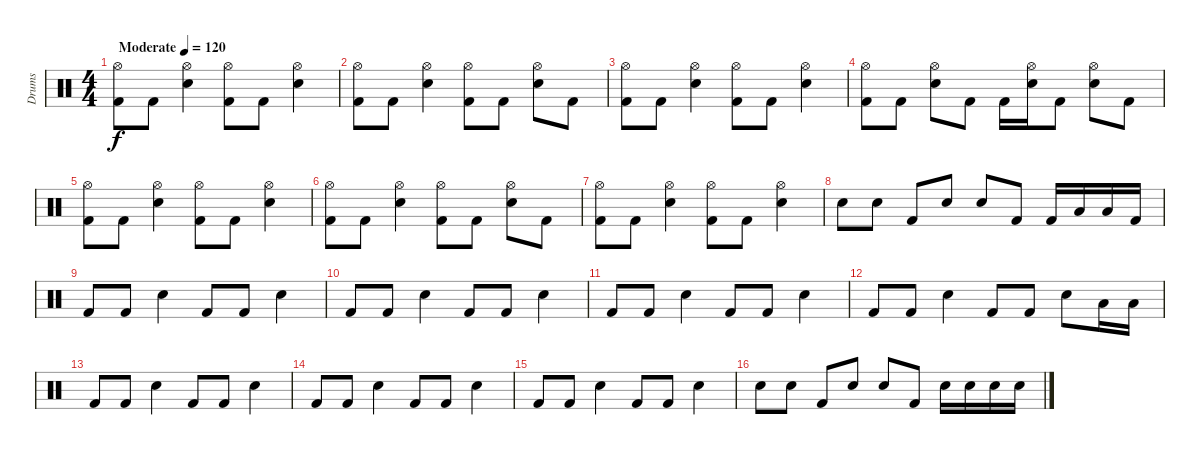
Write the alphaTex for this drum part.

\track ("Drums" "Drums") {instrument percussion}
\staff {score}
\articulation defaults
\ts (4 4)
\tempo (120 "Moderate")
\clef neutral
\ks c
("Hi-Hat (open)" "Kick (hit) 2").8{dy f} "Kick (hit) 2".8 ("Hi-Hat (open)" "Snare (hit) 2").4 ("Hi-Hat (open)" "Kick (hit) 2").8 "Kick (hit) 2".8 ("Hi-Hat (open)" "Snare (hit) 2").4 |
("Hi-Hat (open)" "Kick (hit) 2").8 "Kick (hit) 2".8 ("Hi-Hat (open)" "Snare (hit) 2").4 ("Hi-Hat (open)" "Kick (hit) 2").8 "Kick (hit) 2".8 ("Hi-Hat (open)" "Snare (hit) 2").8 "Kick (hit) 2".8 |
("Hi-Hat (open)" "Kick (hit) 2").8 "Kick (hit) 2".8 ("Hi-Hat (open)" "Snare (hit) 2").4 ("Hi-Hat (open)" "Kick (hit) 2").8 "Kick (hit) 2".8 ("Hi-Hat (open)" "Snare (hit) 2").4 |
("Hi-Hat (open)" "Kick (hit) 2").8 "Kick (hit) 2".8 ("Hi-Hat (open)" "Snare (hit) 2").8 "Kick (hit) 2".8 "Kick (hit) 2".16 ("Hi-Hat (open)" "Snare (hit) 2").16 "Kick (hit) 2".8 ("Hi-Hat (open)" "Snare (hit) 2").8 "Kick (hit) 2".8 |
("Hi-Hat (open)" "Kick (hit) 2").8 "Kick (hit) 2".8 ("Hi-Hat (open)" "Snare (hit) 2").4 ("Hi-Hat (open)" "Kick (hit) 2").8 "Kick (hit) 2".8 ("Hi-Hat (open)" "Snare (hit) 2").4 |
("Hi-Hat (open)" "Kick (hit) 2").8 "Kick (hit) 2".8 ("Hi-Hat (open)" "Snare (hit) 2").4 ("Hi-Hat (open)" "Kick (hit) 2").8 "Kick (hit) 2".8 ("Hi-Hat (open)" "Snare (hit) 2").8 "Kick (hit) 2".8 |
("Hi-Hat (open)" "Kick (hit) 2").8 "Kick (hit) 2".8 ("Hi-Hat (open)" "Snare (hit) 2").4 ("Hi-Hat (open)" "Kick (hit) 2").8 "Kick (hit) 2".8 ("Hi-Hat (open)" "Snare (hit) 2").4 |
"Snare (hit) 2".8 "Snare (hit) 2".8 "Kick (hit) 2".8 "Snare (hit) 2".8 "Snare (hit) 2".8 "Kick (hit) 2".8 "Kick (hit) 2".16 "Low Tom (hit)".16 "Low Tom (hit)".16 "Kick (hit) 2".16 |
"Kick (hit) 2".8 "Kick (hit) 2".8 "Snare (hit) 2".4 "Kick (hit) 2".8 "Kick (hit) 2".8 "Snare (hit) 2".4 |
"Kick (hit) 2".8 "Kick (hit) 2".8 "Snare (hit) 2".4 "Kick (hit) 2".8 "Kick (hit) 2".8 "Snare (hit) 2".4 |
"Kick (hit) 2".8 "Kick (hit) 2".8 "Snare (hit) 2".4 "Kick (hit) 2".8 "Kick (hit) 2".8 "Snare (hit) 2".4 |
"Kick (hit) 2".8 "Kick (hit) 2".8 "Snare (hit) 2".4 "Kick (hit) 2".8 "Kick (hit) 2".8 "Snare (hit) 2".8 "Low Tom (hit)".16 "Low Tom (hit)".16 |
"Kick (hit) 2".8 "Kick (hit) 2".8 "Snare (hit) 2".4 "Kick (hit) 2".8 "Kick (hit) 2".8 "Snare (hit) 2".4 |
"Kick (hit) 2".8 "Kick (hit) 2".8 "Snare (hit) 2".4 "Kick (hit) 2".8 "Kick (hit) 2".8 "Snare (hit) 2".4 |
"Kick (hit) 2".8 "Kick (hit) 2".8 "Snare (hit) 2".4 "Kick (hit) 2".8 "Kick (hit) 2".8 "Snare (hit) 2".4 |
"Snare (hit) 2".8 "Snare (hit) 2".8 "Kick (hit) 2".8 "Snare (hit) 2".8 "Snare (hit) 2".8 "Kick (hit) 2".8 "Snare (hit) 2".16 "Snare (hit) 2".16 "Snare (hit) 2".16 "Snare (hit) 2".16
